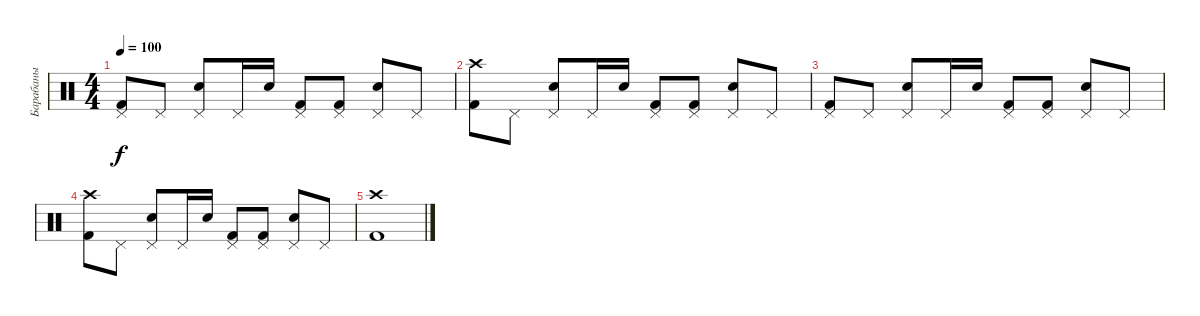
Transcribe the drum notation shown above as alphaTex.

\track ("Барабаны" "Барабаны") {instrument percussion}
\staff {score}
\articulation defaults
\ts (4 4)
\tempo 100
\clef neutral
\ks c
("Pedal Hi-Hat (hit)" "Kick (hit) 2").8{dy f} "Pedal Hi-Hat (hit)".8 ("Pedal Hi-Hat (hit)" "Electric Snare (hit)").8 "Pedal Hi-Hat (hit)".16 "Electric Snare (hit)".16 ("Pedal Hi-Hat (hit)" "Kick (hit) 2").8 ("Pedal Hi-Hat (hit)" "Kick (hit) 2").8 ("Pedal Hi-Hat (hit)" "Electric Snare (hit)").8 "Pedal Hi-Hat (hit)".8 |
("Crash high (hit)" "Kick (hit) 2").8 "Pedal Hi-Hat (hit)".8 ("Pedal Hi-Hat (hit)" "Electric Snare (hit)").8 "Pedal Hi-Hat (hit)".16 "Electric Snare (hit)".16 ("Pedal Hi-Hat (hit)" "Kick (hit) 2").8 ("Pedal Hi-Hat (hit)" "Kick (hit) 2").8 ("Pedal Hi-Hat (hit)" "Electric Snare (hit)").8 "Pedal Hi-Hat (hit)".8 |
("Pedal Hi-Hat (hit)" "Kick (hit) 2").8 "Pedal Hi-Hat (hit)".8 ("Pedal Hi-Hat (hit)" "Electric Snare (hit)").8 "Pedal Hi-Hat (hit)".16 "Electric Snare (hit)".16 ("Pedal Hi-Hat (hit)" "Kick (hit) 2").8 ("Pedal Hi-Hat (hit)" "Kick (hit) 2").8 ("Pedal Hi-Hat (hit)" "Electric Snare (hit)").8 "Pedal Hi-Hat (hit)".8 |
("Crash high (hit)" "Kick (hit) 2").8 "Pedal Hi-Hat (hit)".8 ("Pedal Hi-Hat (hit)" "Electric Snare (hit)").8 "Pedal Hi-Hat (hit)".16 "Electric Snare (hit)".16 ("Pedal Hi-Hat (hit)" "Kick (hit) 2").8 ("Pedal Hi-Hat (hit)" "Kick (hit) 2").8 ("Pedal Hi-Hat (hit)" "Electric Snare (hit)").8 "Pedal Hi-Hat (hit)".8 |
("Crash high (hit)" "Kick (hit) 2").1
